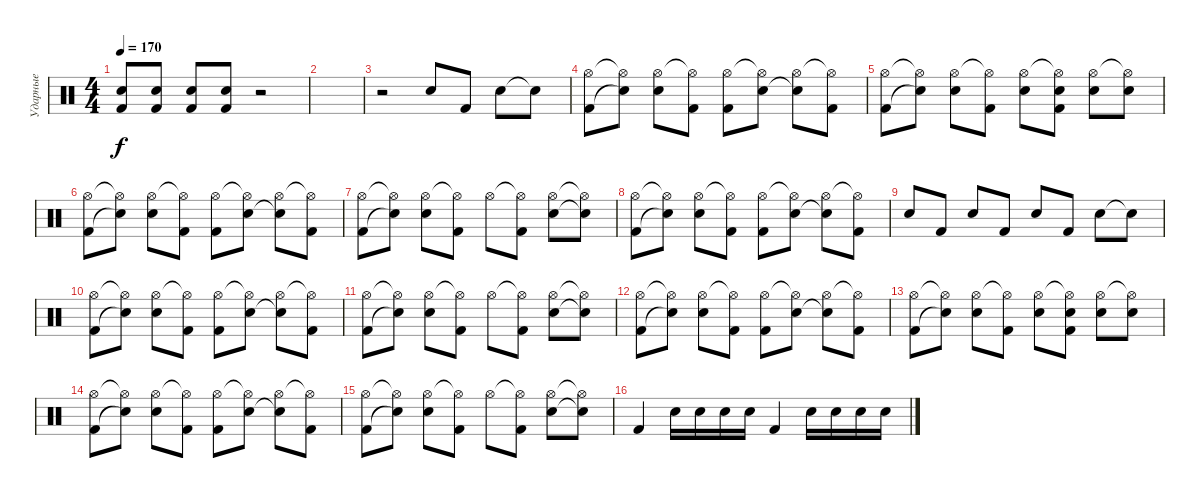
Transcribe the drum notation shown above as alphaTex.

\track ("Ударные" "Ударные") {instrument percussion}
\staff {score}
\articulation defaults
\ts (4 4)
\tempo 170
\clef neutral
\ks c
("Electric Snare (hit)" "Kick (hit) 2").8{dy f} ("Electric Snare (hit)" "Kick (hit) 2").8 ("Electric Snare (hit)" "Kick (hit) 2").8 ("Electric Snare (hit)" "Kick (hit) 2").8 r.2 |
|
r.2 "Electric Snare (hit)".8 "Kick (hit) 2".8 "Electric Snare (hit)".8 "Snare (hit)"{t}.8 |
("Hi-Hat (open)" "Kick (hit) 2").8 ("Hi-Hat (open)"{t} "Snare (hit)"{t}).8 ("Hi-Hat (open)" "Electric Snare (hit)").8 ("Hi-Hat (open)"{t} "Kick (hit) 2").8 ("Hi-Hat (open)" "Kick (hit) 2").8 ("Hi-Hat (open)"{t} "Electric Snare (hit)").8 ("Hi-Hat (open)" "Snare (hit)"{t}).8 ("Hi-Hat (open)"{t} "Kick (hit) 2").8 |
("Hi-Hat (open)" "Kick (hit) 2").8 ("Hi-Hat (open)"{t} "Snare (hit)"{t}).8 ("Hi-Hat (open)" "Electric Snare (hit)").8 ("Hi-Hat (open)"{t} "Kick (hit) 2").8 ("Hi-Hat (open)" "Electric Snare (hit)").8 ("Hi-Hat (open)"{t} "Electric Snare (hit)" "Kick (hit) 2").8 ("Hi-Hat (open)" "Electric Snare (hit)").8 ("Hi-Hat (open)"{t} "Electric Snare (hit)").8 |
("Hi-Hat (open)" "Kick (hit) 2").8 ("Hi-Hat (open)"{t} "Snare (hit)"{t}).8 ("Hi-Hat (open)" "Electric Snare (hit)").8 ("Hi-Hat (open)"{t} "Kick (hit) 2").8 ("Hi-Hat (open)" "Kick (hit) 2").8 ("Hi-Hat (open)"{t} "Electric Snare (hit)").8 ("Hi-Hat (open)" "Snare (hit)"{t}).8 ("Hi-Hat (open)"{t} "Kick (hit) 2").8 |
("Hi-Hat (open)" "Kick (hit) 2").8 ("Hi-Hat (open)"{t} "Snare (hit)"{t}).8 ("Hi-Hat (open)" "Electric Snare (hit)").8 ("Hi-Hat (open)"{t} "Kick (hit) 2").8 "Hi-Hat (open)".8 ("Hi-Hat (open)"{t} "Kick (hit) 2").8 ("Hi-Hat (open)" "Electric Snare (hit)").8 ("Hi-Hat (open)"{t} "Snare (hit)"{t}).8 |
("Hi-Hat (open)" "Kick (hit) 2").8 ("Hi-Hat (open)"{t} "Snare (hit)"{t}).8 ("Hi-Hat (open)" "Electric Snare (hit)").8 ("Hi-Hat (open)"{t} "Kick (hit) 2").8 ("Hi-Hat (open)" "Kick (hit) 2").8 ("Hi-Hat (open)"{t} "Electric Snare (hit)").8 ("Hi-Hat (open)" "Snare (hit)"{t}).8 ("Hi-Hat (open)"{t} "Kick (hit) 2").8 |
"Electric Snare (hit)".8 "Kick (hit) 2".8 "Electric Snare (hit)".8 "Kick (hit) 2".8 "Electric Snare (hit)".8 "Kick (hit) 2".8 "Electric Snare (hit)".8 "Snare (hit)"{t}.8 |
("Hi-Hat (open)" "Kick (hit) 2").8 ("Hi-Hat (open)"{t} "Snare (hit)"{t}).8 ("Hi-Hat (open)" "Electric Snare (hit)").8 ("Hi-Hat (open)"{t} "Kick (hit) 2").8 ("Hi-Hat (open)" "Kick (hit) 2").8 ("Hi-Hat (open)"{t} "Electric Snare (hit)").8 ("Hi-Hat (open)" "Snare (hit)"{t}).8 ("Hi-Hat (open)"{t} "Kick (hit) 2").8 |
("Hi-Hat (open)" "Kick (hit) 2").8 ("Hi-Hat (open)"{t} "Snare (hit)"{t}).8 ("Hi-Hat (open)" "Electric Snare (hit)").8 ("Hi-Hat (open)"{t} "Kick (hit) 2").8 "Hi-Hat (open)".8 ("Hi-Hat (open)"{t} "Kick (hit) 2").8 ("Hi-Hat (open)" "Electric Snare (hit)").8 ("Hi-Hat (open)"{t} "Snare (hit)"{t}).8 |
("Hi-Hat (open)" "Kick (hit) 2").8 ("Hi-Hat (open)"{t} "Snare (hit)"{t}).8 ("Hi-Hat (open)" "Electric Snare (hit)").8 ("Hi-Hat (open)"{t} "Kick (hit) 2").8 ("Hi-Hat (open)" "Kick (hit) 2").8 ("Hi-Hat (open)"{t} "Electric Snare (hit)").8 ("Hi-Hat (open)" "Snare (hit)"{t}).8 ("Hi-Hat (open)"{t} "Kick (hit) 2").8 |
("Hi-Hat (open)" "Kick (hit) 2").8 ("Hi-Hat (open)"{t} "Snare (hit)"{t}).8 ("Hi-Hat (open)" "Electric Snare (hit)").8 ("Hi-Hat (open)"{t} "Kick (hit) 2").8 ("Hi-Hat (open)" "Electric Snare (hit)").8 ("Hi-Hat (open)"{t} "Electric Snare (hit)" "Kick (hit) 2").8 ("Hi-Hat (open)" "Electric Snare (hit)").8 ("Hi-Hat (open)"{t} "Electric Snare (hit)").8 |
("Hi-Hat (open)" "Kick (hit) 2").8 ("Hi-Hat (open)"{t} "Snare (hit)"{t}).8 ("Hi-Hat (open)" "Electric Snare (hit)").8 ("Hi-Hat (open)"{t} "Kick (hit) 2").8 ("Hi-Hat (open)" "Kick (hit) 2").8 ("Hi-Hat (open)"{t} "Electric Snare (hit)").8 ("Hi-Hat (open)" "Snare (hit)"{t}).8 ("Hi-Hat (open)"{t} "Kick (hit) 2").8 |
("Hi-Hat (open)" "Kick (hit) 2").8 ("Hi-Hat (open)"{t} "Snare (hit)"{t}).8 ("Hi-Hat (open)" "Electric Snare (hit)").8 ("Hi-Hat (open)"{t} "Kick (hit) 2").8 "Hi-Hat (open)".8 ("Hi-Hat (open)"{t} "Kick (hit) 2").8 ("Hi-Hat (open)" "Electric Snare (hit)").8 ("Hi-Hat (open)"{t} "Snare (hit)"{t}).8 |
"Kick (hit) 2".4 "Electric Snare (hit)".16 "Electric Snare (hit)".16 "Electric Snare (hit)".16 "Electric Snare (hit)".16 "Kick (hit) 2".4 "Electric Snare (hit)".16 "Electric Snare (hit)".16 "Electric Snare (hit)".16 "Electric Snare (hit)".16
